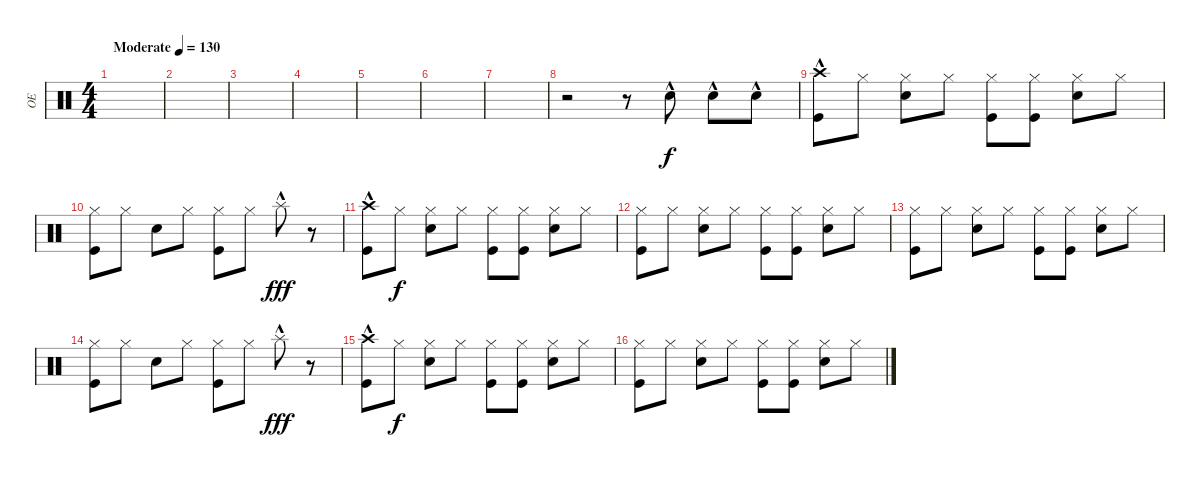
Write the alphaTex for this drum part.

\track ("OE" "OE") {instrument percussion}
\staff {score}
\articulation defaults
\ts (4 4)
\tempo (130 "Moderate")
\clef neutral
\ks c
|
|
|
|
|
|
|
r.2 r.8 "Snare (hit) 2"{hac}.8 "Snare (hit) 2"{hac}.8 "Snare (hit) 2"{hac}.8 |
("Crash high (hit)"{hac} "Kick (hit)").8 "Hi-Hat (closed)".8{dy f} ("Hi-Hat (closed)" "Snare (hit) 2").8 "Hi-Hat (closed)".8 ("Hi-Hat (closed)" "Kick (hit)").8 ("Hi-Hat (closed)" "Kick (hit)").8 ("Hi-Hat (closed)" "Snare (hit) 2").8 "Hi-Hat (closed)".8 |
("Kick (hit)" "Hi-Hat (closed)").8 "Hi-Hat (closed)".8 "Snare (hit) 2".8 "Hi-Hat (closed)".8 ("Kick (hit)" "Hi-Hat (closed)").8 "Hi-Hat (closed)".8 "Splash (hit)"{hac}.8{dy fff} r.8 |
("Crash high (hit)"{hac} "Kick (hit)").8 "Hi-Hat (closed)".8{dy f} ("Hi-Hat (closed)" "Snare (hit) 2").8 "Hi-Hat (closed)".8 ("Hi-Hat (closed)" "Kick (hit)").8 ("Hi-Hat (closed)" "Kick (hit)").8 ("Hi-Hat (closed)" "Snare (hit) 2").8 "Hi-Hat (closed)".8 |
("Hi-Hat (closed)" "Kick (hit)").8 "Hi-Hat (closed)".8 ("Hi-Hat (closed)" "Snare (hit) 2").8 "Hi-Hat (closed)".8 ("Hi-Hat (closed)" "Kick (hit)").8 ("Hi-Hat (closed)" "Kick (hit)").8 ("Hi-Hat (closed)" "Snare (hit) 2").8 "Hi-Hat (closed)".8 |
("Hi-Hat (closed)" "Kick (hit)").8 "Hi-Hat (closed)".8 ("Hi-Hat (closed)" "Snare (hit) 2").8 "Hi-Hat (closed)".8 ("Hi-Hat (closed)" "Kick (hit)").8 ("Hi-Hat (closed)" "Kick (hit)").8 ("Hi-Hat (closed)" "Snare (hit) 2").8 "Hi-Hat (closed)".8 |
("Kick (hit)" "Hi-Hat (closed)").8 "Hi-Hat (closed)".8 "Snare (hit) 2".8 "Hi-Hat (closed)".8 ("Kick (hit)" "Hi-Hat (closed)").8 "Hi-Hat (closed)".8 "Splash (hit)"{hac}.8{dy fff} r.8 |
("Crash high (hit)"{hac} "Kick (hit)").8 "Hi-Hat (closed)".8{dy f} ("Hi-Hat (closed)" "Snare (hit) 2").8 "Hi-Hat (closed)".8 ("Hi-Hat (closed)" "Kick (hit)").8 ("Hi-Hat (closed)" "Kick (hit)").8 ("Hi-Hat (closed)" "Snare (hit) 2").8 "Hi-Hat (closed)".8 |
("Hi-Hat (closed)" "Kick (hit)").8 "Hi-Hat (closed)".8 ("Hi-Hat (closed)" "Snare (hit) 2").8 "Hi-Hat (closed)".8 ("Hi-Hat (closed)" "Kick (hit)").8 ("Hi-Hat (closed)" "Kick (hit)").8 ("Hi-Hat (closed)" "Snare (hit) 2").8 "Hi-Hat (closed)".8
